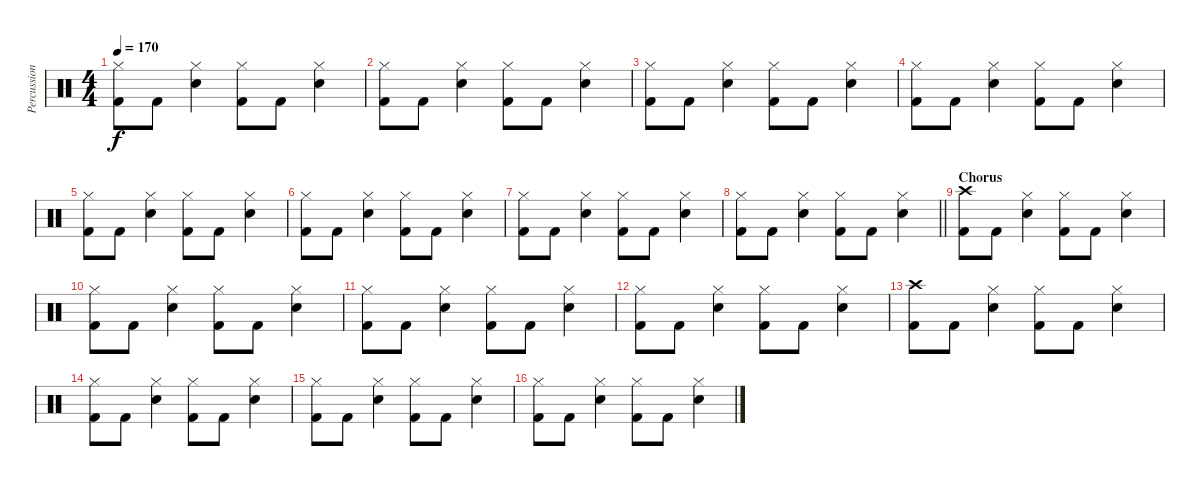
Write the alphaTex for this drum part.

\track ("Percussion" "Percussion") {instrument percussion}
\staff {score}
\articulation defaults
\ts (4 4)
\tempo 170
\clef neutral
\ks c
("Hi-Hat (closed)" "Kick (hit) 2").8{dy f} "Kick (hit) 2".8 ("Hi-Hat (closed)" "Electric Snare (hit)").4 ("Hi-Hat (closed)" "Kick (hit) 2").8 "Kick (hit) 2".8 ("Hi-Hat (closed)" "Electric Snare (hit)").4 |
("Hi-Hat (closed)" "Kick (hit) 2").8 "Kick (hit) 2".8 ("Hi-Hat (closed)" "Electric Snare (hit)").4 ("Hi-Hat (closed)" "Kick (hit) 2").8 "Kick (hit) 2".8 ("Hi-Hat (closed)" "Electric Snare (hit)").4 |
("Hi-Hat (closed)" "Kick (hit) 2").8 "Kick (hit) 2".8 ("Hi-Hat (closed)" "Electric Snare (hit)").4 ("Hi-Hat (closed)" "Kick (hit) 2").8 "Kick (hit) 2".8 ("Hi-Hat (closed)" "Electric Snare (hit)").4 |
("Hi-Hat (closed)" "Kick (hit) 2").8 "Kick (hit) 2".8 ("Hi-Hat (closed)" "Electric Snare (hit)").4 ("Hi-Hat (closed)" "Kick (hit) 2").8 "Kick (hit) 2".8 ("Hi-Hat (closed)" "Electric Snare (hit)").4 |
("Hi-Hat (closed)" "Kick (hit) 2").8 "Kick (hit) 2".8 ("Hi-Hat (closed)" "Electric Snare (hit)").4 ("Hi-Hat (closed)" "Kick (hit) 2").8 "Kick (hit) 2".8 ("Hi-Hat (closed)" "Electric Snare (hit)").4 |
("Hi-Hat (closed)" "Kick (hit) 2").8 "Kick (hit) 2".8 ("Hi-Hat (closed)" "Electric Snare (hit)").4 ("Hi-Hat (closed)" "Kick (hit) 2").8 "Kick (hit) 2".8 ("Hi-Hat (closed)" "Electric Snare (hit)").4 |
("Hi-Hat (closed)" "Kick (hit) 2").8 "Kick (hit) 2".8 ("Hi-Hat (closed)" "Electric Snare (hit)").4 ("Hi-Hat (closed)" "Kick (hit) 2").8 "Kick (hit) 2".8 ("Hi-Hat (closed)" "Electric Snare (hit)").4 |
\barLineRight lightlight
("Hi-Hat (closed)" "Kick (hit) 2").8 "Kick (hit) 2".8 ("Hi-Hat (closed)" "Electric Snare (hit)").4 ("Hi-Hat (closed)" "Kick (hit) 2").8 "Kick (hit) 2".8 ("Hi-Hat (closed)" "Electric Snare (hit)").4 |
\section ("" "Chorus")
("Crash high (hit)" "Kick (hit) 2").8 "Kick (hit) 2".8 ("Hi-Hat (closed)" "Electric Snare (hit)").4 ("Hi-Hat (closed)" "Kick (hit) 2").8 "Kick (hit) 2".8 ("Hi-Hat (closed)" "Electric Snare (hit)").4 |
("Hi-Hat (closed)" "Kick (hit) 2").8 "Kick (hit) 2".8 ("Hi-Hat (closed)" "Electric Snare (hit)").4 ("Hi-Hat (closed)" "Kick (hit) 2").8 "Kick (hit) 2".8 ("Hi-Hat (closed)" "Electric Snare (hit)").4 |
("Hi-Hat (closed)" "Kick (hit) 2").8 "Kick (hit) 2".8 ("Hi-Hat (closed)" "Electric Snare (hit)").4 ("Hi-Hat (closed)" "Kick (hit) 2").8 "Kick (hit) 2".8 ("Hi-Hat (closed)" "Electric Snare (hit)").4 |
("Hi-Hat (closed)" "Kick (hit) 2").8 "Kick (hit) 2".8 ("Hi-Hat (closed)" "Electric Snare (hit)").4 ("Hi-Hat (closed)" "Kick (hit) 2").8 "Kick (hit) 2".8 ("Hi-Hat (closed)" "Electric Snare (hit)").4 |
("Crash high (hit)" "Kick (hit) 2").8 "Kick (hit) 2".8 ("Hi-Hat (closed)" "Electric Snare (hit)").4 ("Hi-Hat (closed)" "Kick (hit) 2").8 "Kick (hit) 2".8 ("Hi-Hat (closed)" "Electric Snare (hit)").4 |
("Hi-Hat (closed)" "Kick (hit) 2").8 "Kick (hit) 2".8 ("Hi-Hat (closed)" "Electric Snare (hit)").4 ("Hi-Hat (closed)" "Kick (hit) 2").8 "Kick (hit) 2".8 ("Hi-Hat (closed)" "Electric Snare (hit)").4 |
("Hi-Hat (closed)" "Kick (hit) 2").8 "Kick (hit) 2".8 ("Hi-Hat (closed)" "Electric Snare (hit)").4 ("Hi-Hat (closed)" "Kick (hit) 2").8 "Kick (hit) 2".8 ("Hi-Hat (closed)" "Electric Snare (hit)").4 |
("Hi-Hat (closed)" "Kick (hit) 2").8 "Kick (hit) 2".8 ("Hi-Hat (closed)" "Electric Snare (hit)").4 ("Hi-Hat (closed)" "Kick (hit) 2").8 "Kick (hit) 2".8 ("Hi-Hat (closed)" "Electric Snare (hit)").4
